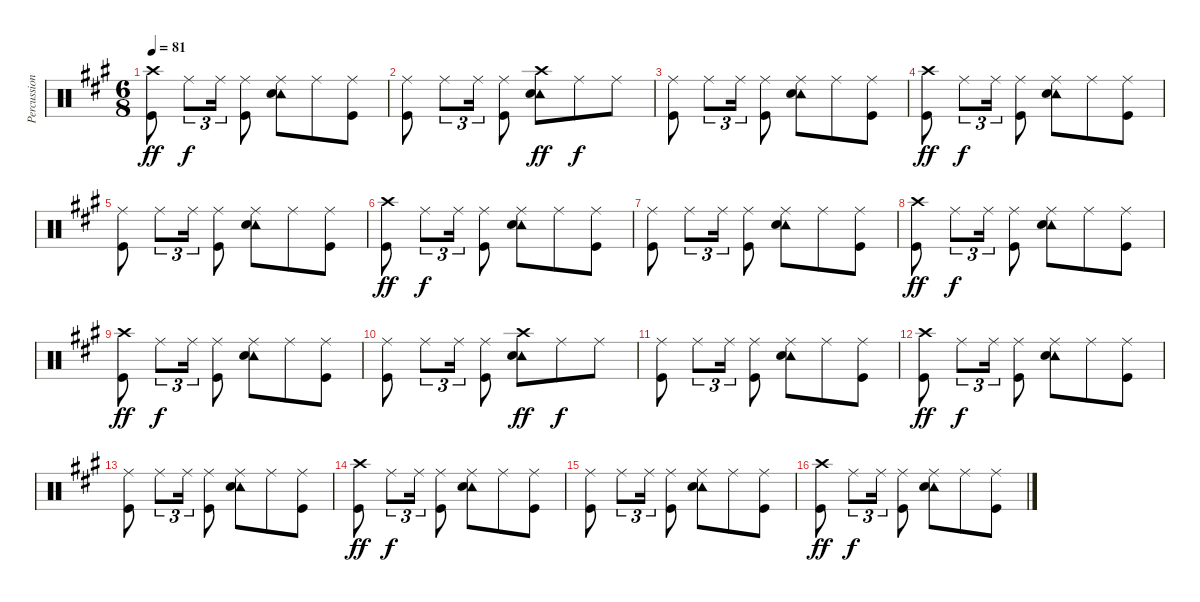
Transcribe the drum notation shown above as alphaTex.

\track ("Percussion" "Percussion") {instrument percussion}
\staff {score}
\articulation defaults
\ts (6 8)
\tempo 81
\clef neutral
\ks a
("Crash high (hit)" "Kick (hit)").8{dy ff} "Ride (middle)".8{tu (3 2) dy f} "Ride (middle)".16{tu (3 2)} ("Ride (middle)" "Kick (hit)").8 ("Ride (middle)" "Tambourine (hit)" "Snare (hit) 2").8 "Ride (middle)".8 ("Ride (middle)" "Kick (hit)").8 |
("Ride (middle)" "Kick (hit)").8 "Ride (middle)".8{tu (3 2)} "Ride (middle)".16{tu (3 2)} ("Ride (middle)" "Kick (hit)").8 ("Crash high (hit)" "Tambourine (hit)" "Snare (hit) 2").8{dy ff} "Ride (middle)".8{dy f} "Ride (middle)".8 |
("Ride (middle)" "Kick (hit)").8 "Ride (middle)".8{tu (3 2)} "Ride (middle)".16{tu (3 2)} ("Ride (middle)" "Kick (hit)").8 ("Ride (middle)" "Tambourine (hit)" "Snare (hit) 2").8 "Ride (middle)".8 ("Ride (middle)" "Kick (hit)").8 |
("Crash high (hit)" "Kick (hit)").8{dy ff} "Ride (middle)".8{tu (3 2) dy f} "Ride (middle)".16{tu (3 2)} ("Ride (middle)" "Kick (hit)").8 ("Ride (middle)" "Tambourine (hit)" "Snare (hit) 2").8 "Ride (middle)".8 ("Ride (middle)" "Kick (hit)").8 |
("Ride (middle)" "Kick (hit)").8 "Ride (middle)".8{tu (3 2)} "Ride (middle)".16{tu (3 2)} ("Ride (middle)" "Kick (hit)").8 ("Ride (middle)" "Tambourine (hit)" "Snare (hit) 2").8 "Ride (middle)".8 ("Ride (middle)" "Kick (hit)").8 |
("Crash high (hit)" "Kick (hit)").8{dy ff} "Ride (middle)".8{tu (3 2) dy f} "Ride (middle)".16{tu (3 2)} ("Ride (middle)" "Kick (hit)").8 ("Ride (middle)" "Tambourine (hit)" "Snare (hit) 2").8 "Ride (middle)".8 ("Ride (middle)" "Kick (hit)").8 |
("Ride (middle)" "Kick (hit)").8 "Ride (middle)".8{tu (3 2)} "Ride (middle)".16{tu (3 2)} ("Ride (middle)" "Kick (hit)").8 ("Ride (middle)" "Tambourine (hit)" "Snare (hit) 2").8 "Ride (middle)".8 ("Ride (middle)" "Kick (hit)").8 |
("Crash high (hit)" "Kick (hit)").8{dy ff} "Ride (middle)".8{tu (3 2) dy f} "Ride (middle)".16{tu (3 2)} ("Ride (middle)" "Kick (hit)").8 ("Ride (middle)" "Tambourine (hit)" "Snare (hit) 2").8 "Ride (middle)".8 ("Ride (middle)" "Kick (hit)").8 |
("Crash high (hit)" "Kick (hit)").8{dy ff} "Ride (middle)".8{tu (3 2) dy f} "Ride (middle)".16{tu (3 2)} ("Ride (middle)" "Kick (hit)").8 ("Ride (middle)" "Tambourine (hit)" "Snare (hit) 2").8 "Ride (middle)".8 ("Ride (middle)" "Kick (hit)").8 |
("Ride (middle)" "Kick (hit)").8 "Ride (middle)".8{tu (3 2)} "Ride (middle)".16{tu (3 2)} ("Ride (middle)" "Kick (hit)").8 ("Crash high (hit)" "Tambourine (hit)" "Snare (hit) 2").8{dy ff} "Ride (middle)".8{dy f} "Ride (middle)".8 |
("Ride (middle)" "Kick (hit)").8 "Ride (middle)".8{tu (3 2)} "Ride (middle)".16{tu (3 2)} ("Ride (middle)" "Kick (hit)").8 ("Ride (middle)" "Tambourine (hit)" "Snare (hit) 2").8 "Ride (middle)".8 ("Ride (middle)" "Kick (hit)").8 |
("Crash high (hit)" "Kick (hit)").8{dy ff} "Ride (middle)".8{tu (3 2) dy f} "Ride (middle)".16{tu (3 2)} ("Ride (middle)" "Kick (hit)").8 ("Ride (middle)" "Tambourine (hit)" "Snare (hit) 2").8 "Ride (middle)".8 ("Ride (middle)" "Kick (hit)").8 |
("Ride (middle)" "Kick (hit)").8 "Ride (middle)".8{tu (3 2)} "Ride (middle)".16{tu (3 2)} ("Ride (middle)" "Kick (hit)").8 ("Ride (middle)" "Tambourine (hit)" "Snare (hit) 2").8 "Ride (middle)".8 ("Ride (middle)" "Kick (hit)").8 |
("Crash high (hit)" "Kick (hit)").8{dy ff} "Ride (middle)".8{tu (3 2) dy f} "Ride (middle)".16{tu (3 2)} ("Ride (middle)" "Kick (hit)").8 ("Ride (middle)" "Tambourine (hit)" "Snare (hit) 2").8 "Ride (middle)".8 ("Ride (middle)" "Kick (hit)").8 |
("Ride (middle)" "Kick (hit)").8 "Ride (middle)".8{tu (3 2)} "Ride (middle)".16{tu (3 2)} ("Ride (middle)" "Kick (hit)").8 ("Ride (middle)" "Tambourine (hit)" "Snare (hit) 2").8 "Ride (middle)".8 ("Ride (middle)" "Kick (hit)").8 |
("Crash high (hit)" "Kick (hit)").8{dy ff} "Ride (middle)".8{tu (3 2) dy f} "Ride (middle)".16{tu (3 2)} ("Ride (middle)" "Kick (hit)").8 ("Ride (middle)" "Tambourine (hit)" "Snare (hit) 2").8 "Ride (middle)".8 ("Ride (middle)" "Kick (hit)").8
